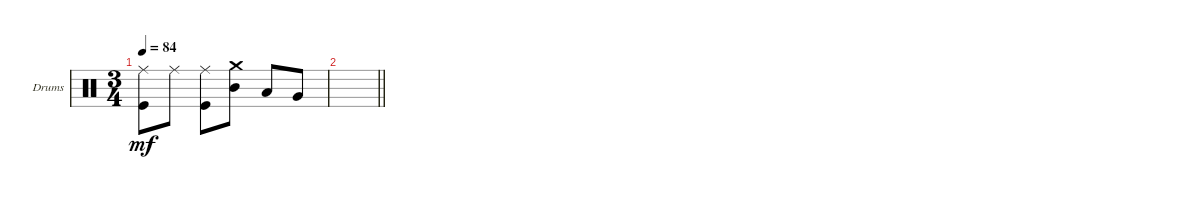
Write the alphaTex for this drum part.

\defaultSystemsLayout 4
\bracketExtendMode groupsimilarinstruments
\firstSystemTrackNameOrientation horizontal
\otherSystemsTrackNameOrientation horizontal
\track ("Drumkit" "Drums") {instrument percussion}
\staff {score}
\articulation defaults
\ts (3 4)
\tempo 84
\clef neutral
\ks c
("Kick (hit)" "Ride (middle)").8{dy mf} "Ride (middle)".8 ("Ride (middle)" "Kick (hit)").8 ("Mid Tom (hit)" "Crash medium (hit)").8 "Low Tom (hit)".8 "Very Low Tom (hit)".8 |
\barLineRight lightlight
